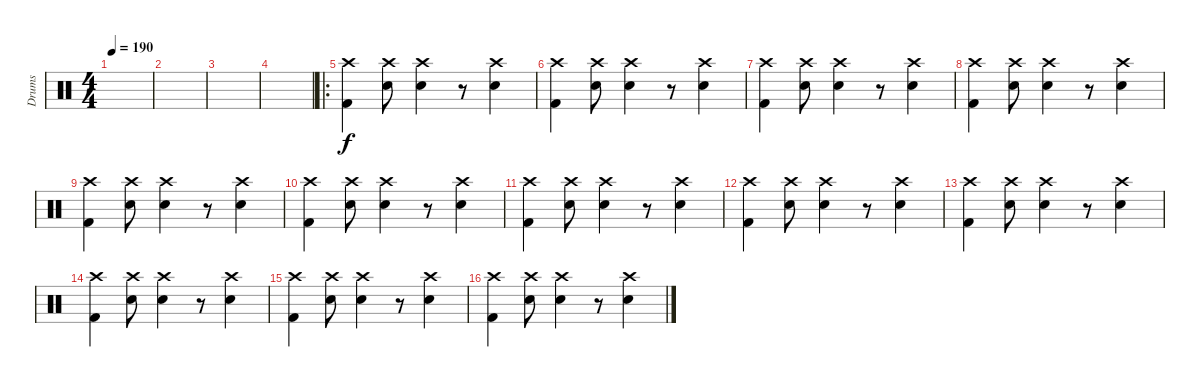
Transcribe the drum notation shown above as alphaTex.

\track ("Drums" "Drums") {instrument percussion}
\staff {score}
\articulation defaults
\ts (4 4)
\tempo 190
\clef neutral
\ks c
|
|
|
|
\ro
("Crash high (hit)" "Kick (hit) 2").4 ("Crash high (hit)" "Snare (hit) 2").8 ("Crash high (hit)" "Snare (hit) 2").4 r.8 ("Crash high (hit)" "Snare (hit) 2").4 |
("Crash high (hit)" "Kick (hit) 2").4 ("Crash high (hit)" "Snare (hit) 2").8 ("Crash high (hit)" "Snare (hit) 2").4 r.8 ("Crash high (hit)" "Snare (hit) 2").4 |
("Crash high (hit)" "Kick (hit) 2").4 ("Crash high (hit)" "Snare (hit) 2").8 ("Crash high (hit)" "Snare (hit) 2").4 r.8 ("Crash high (hit)" "Snare (hit) 2").4 |
("Crash high (hit)" "Kick (hit) 2").4 ("Crash high (hit)" "Snare (hit) 2").8 ("Crash high (hit)" "Snare (hit) 2").4 r.8 ("Crash high (hit)" "Snare (hit) 2").4 |
("Crash high (hit)" "Kick (hit) 2").4 ("Crash high (hit)" "Snare (hit) 2").8 ("Crash high (hit)" "Snare (hit) 2").4 r.8 ("Crash high (hit)" "Snare (hit) 2").4 |
("Crash high (hit)" "Kick (hit) 2").4 ("Crash high (hit)" "Snare (hit) 2").8 ("Crash high (hit)" "Snare (hit) 2").4 r.8 ("Crash high (hit)" "Snare (hit) 2").4 |
("Crash high (hit)" "Kick (hit) 2").4 ("Crash high (hit)" "Snare (hit) 2").8 ("Crash high (hit)" "Snare (hit) 2").4 r.8 ("Crash high (hit)" "Snare (hit) 2").4 |
("Crash high (hit)" "Kick (hit) 2").4 ("Crash high (hit)" "Snare (hit) 2").8 ("Crash high (hit)" "Snare (hit) 2").4 r.8 ("Crash high (hit)" "Snare (hit) 2").4 |
("Crash high (hit)" "Kick (hit) 2").4 ("Crash high (hit)" "Snare (hit) 2").8 ("Crash high (hit)" "Snare (hit) 2").4 r.8 ("Crash high (hit)" "Snare (hit) 2").4 |
("Crash high (hit)" "Kick (hit) 2").4 ("Crash high (hit)" "Snare (hit) 2").8 ("Crash high (hit)" "Snare (hit) 2").4 r.8 ("Crash high (hit)" "Snare (hit) 2").4 |
("Crash high (hit)" "Kick (hit) 2").4 ("Crash high (hit)" "Snare (hit) 2").8 ("Crash high (hit)" "Snare (hit) 2").4 r.8 ("Crash high (hit)" "Snare (hit) 2").4 |
("Crash high (hit)" "Kick (hit) 2").4 ("Crash high (hit)" "Snare (hit) 2").8 ("Crash high (hit)" "Snare (hit) 2").4 r.8 ("Crash high (hit)" "Snare (hit) 2").4
